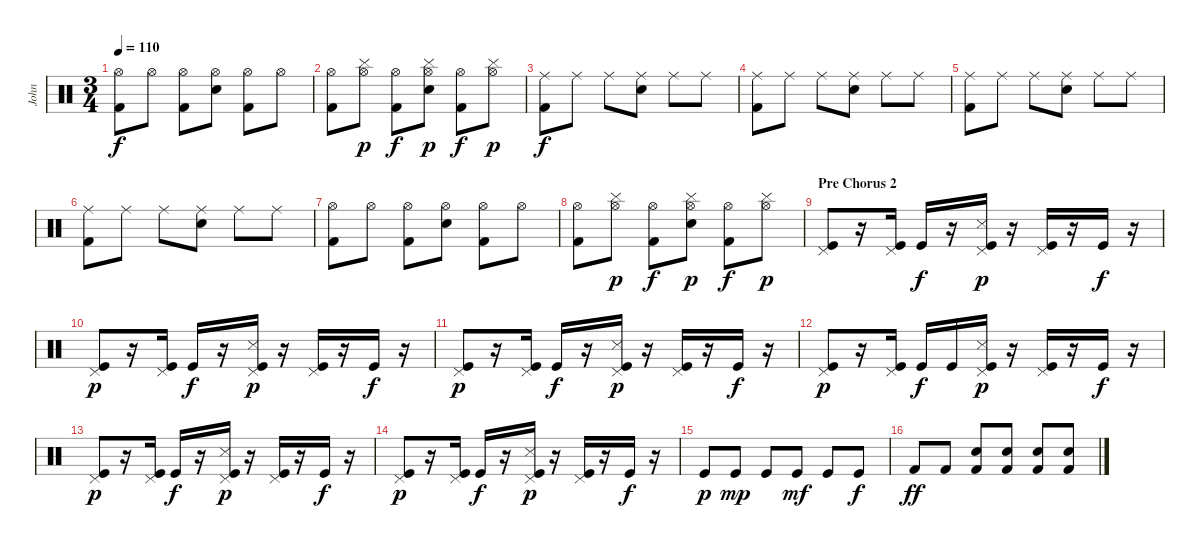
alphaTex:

\track ("John" "John") {instrument percussion}
\staff {score}
\articulation defaults
\ts (3 4)
\tempo 110
\clef neutral
\ks c
("Hi-Hat (open)" "Kick (hit) 2").8{dy f} "Hi-Hat (open)".8 ("Hi-Hat (open)" "Kick (hit) 2").8 ("Hi-Hat (open)" "Electric Snare (hit)").8 ("Hi-Hat (open)" "Kick (hit) 2").8 "Hi-Hat (open)".8 |
("Hi-Hat (open)" "Kick (hit) 2").8 ("Hi-Hat (open)" "Cymbal (hit)").8{dy p} ("Hi-Hat (open)" "Kick (hit) 2").8{dy f} ("Hi-Hat (open)" "Cymbal (hit)" "Electric Snare (hit)").8{dy p} ("Hi-Hat (open)" "Kick (hit) 2").8{dy f} ("Hi-Hat (open)" "Cymbal (hit)").8{dy p} |
("Ride (middle)" "Kick (hit) 2").8{dy f} "Ride (middle)".8 "Ride (middle)".8 ("Ride (middle)" "Electric Snare (hit)").8 "Ride (middle)".8 "Ride (middle)".8 |
("Ride (middle)" "Kick (hit) 2").8 "Ride (middle)".8 "Ride (middle)".8 ("Ride (middle)" "Electric Snare (hit)").8 "Ride (middle)".8 "Ride (middle)".8 |
("Ride (middle)" "Kick (hit) 2").8 "Ride (middle)".8 "Ride (middle)".8 ("Ride (middle)" "Electric Snare (hit)").8 "Ride (middle)".8 "Ride (middle)".8 |
("Ride (middle)" "Kick (hit) 2").8 "Ride (middle)".8 "Ride (middle)".8 ("Ride (middle)" "Electric Snare (hit)").8 "Ride (middle)".8 "Ride (middle)".8 |
("Hi-Hat (open)" "Kick (hit) 2").8 "Hi-Hat (open)".8 ("Hi-Hat (open)" "Kick (hit) 2").8 ("Hi-Hat (open)" "Electric Snare (hit)").8 ("Hi-Hat (open)" "Kick (hit) 2").8 "Hi-Hat (open)".8 |
("Hi-Hat (open)" "Kick (hit) 2").8 ("Hi-Hat (open)" "Cymbal (hit)").8{dy p} ("Hi-Hat (open)" "Kick (hit) 2").8{dy f} ("Hi-Hat (open)" "Cymbal (hit)" "Electric Snare (hit)").8{dy p} ("Hi-Hat (open)" "Kick (hit) 2").8{dy f} ("Hi-Hat (open)" "Cymbal (hit)").8{dy p} |
\section ("" "Pre Chorus 2")
("Pedal Hi-Hat (hit)" "Kick (hit)").8 r.16 ("Pedal Hi-Hat (hit)" "Kick (hit)").16 "Kick (hit)".16{dy f} r.16 ("Pedal Hi-Hat (hit)" "Snare (side stick) 3" "Kick (hit)").16{dy p} r.16 ("Pedal Hi-Hat (hit)" "Kick (hit)").16 r.16 "Kick (hit)".16{dy f} r.16 |
("Pedal Hi-Hat (hit)" "Kick (hit)").8{dy p} r.16 ("Pedal Hi-Hat (hit)" "Kick (hit)").16 "Kick (hit)".16{dy f} r.16 ("Pedal Hi-Hat (hit)" "Snare (side stick) 3" "Kick (hit)").16{dy p} r.16 ("Pedal Hi-Hat (hit)" "Kick (hit)").16 r.16 "Kick (hit)".16{dy f} r.16 |
("Pedal Hi-Hat (hit)" "Kick (hit)").8{dy p} r.16 ("Pedal Hi-Hat (hit)" "Kick (hit)").16 "Kick (hit)".16{dy f} r.16 ("Pedal Hi-Hat (hit)" "Snare (side stick) 3" "Kick (hit)").16{dy p} r.16 ("Pedal Hi-Hat (hit)" "Kick (hit)").16 r.16 "Kick (hit)".16{dy f} r.16 |
("Pedal Hi-Hat (hit)" "Kick (hit)").8{dy p} r.16 ("Pedal Hi-Hat (hit)" "Kick (hit)").16 "Kick (hit)".16{dy f} "Kick (hit)".16 ("Pedal Hi-Hat (hit)" "Snare (side stick) 3" "Kick (hit)").16{dy p} r.16 ("Pedal Hi-Hat (hit)" "Kick (hit)").16 r.16 "Kick (hit)".16{dy f} r.16 |
("Pedal Hi-Hat (hit)" "Kick (hit)").8{dy p} r.16 ("Pedal Hi-Hat (hit)" "Kick (hit)").16 "Kick (hit)".16{dy f} r.16 ("Pedal Hi-Hat (hit)" "Snare (side stick) 3" "Kick (hit)").16{dy p} r.16 ("Pedal Hi-Hat (hit)" "Kick (hit)").16 r.16 "Kick (hit)".16{dy f} r.16 |
("Pedal Hi-Hat (hit)" "Kick (hit)").8{dy p} r.16 ("Pedal Hi-Hat (hit)" "Kick (hit)").16 "Kick (hit)".16{dy f} r.16 ("Pedal Hi-Hat (hit)" "Snare (side stick) 3" "Kick (hit)").16{dy p} r.16 ("Pedal Hi-Hat (hit)" "Kick (hit)").16 r.16 "Kick (hit)".16{dy f} r.16 |
"Kick (hit)".8{dy p} "Kick (hit)".8{dy mp} "Kick (hit)".8 "Kick (hit)".8{dy mf} "Kick (hit)".8 "Kick (hit)".8{dy f} |
"Kick (hit) 2".8{dy ff} "Kick (hit) 2".8 ("Electric Snare (hit)" "Kick (hit) 2").8 ("Electric Snare (hit)" "Kick (hit) 2").8 ("Electric Snare (hit)" "Kick (hit) 2").8 ("Electric Snare (hit)" "Kick (hit) 2").8
